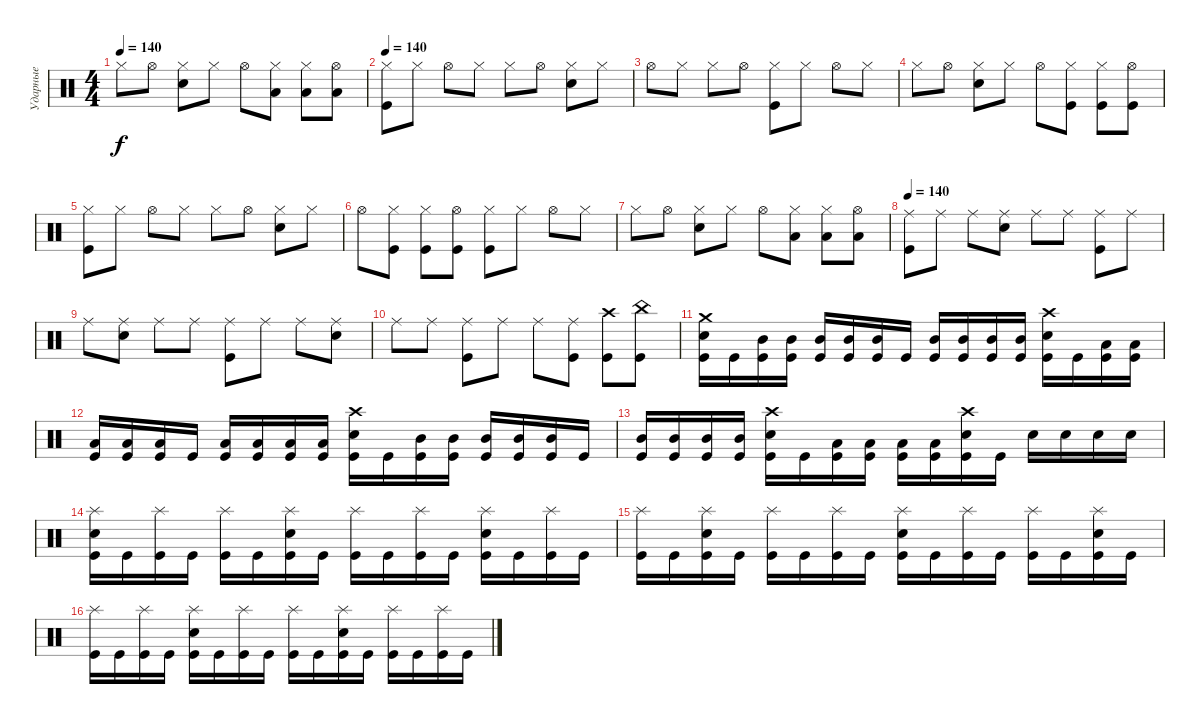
\track ("Ударные" "Ударные") {instrument percussion}
\staff {score}
\articulation defaults
\ts (4 4)
\tempo 140
\clef neutral
\ks c "Hi-Hat (closed)".8{dy f} "Hi-Hat (open)".8
("Snare (hit) 2" "Hi-Hat (closed)").8 "Hi-Hat (closed)".8 "Hi-Hat (open)".8 ("Low Tom (hit)" "Hi-Hat (closed)").8 ("Low Tom (hit)" "Hi-Hat (closed)").8 ("Low Tom (hit)" "Hi-Hat (open)").8 |
\tempo 140
("Kick (hit)" "Hi-Hat (closed)").8 "Hi-Hat (closed)".8 "Hi-Hat (open)".8 "Hi-Hat (closed)".8 "Hi-Hat (closed)".8 "Hi-Hat (open)".8 ("Snare (hit) 2" "Hi-Hat (closed)").8 "Hi-Hat (closed)".8 |
"Hi-Hat (open)".8 "Hi-Hat (closed)".8 "Hi-Hat (closed)".8 "Hi-Hat (open)".8 ("Kick (hit)" "Hi-Hat (closed)").8 "Hi-Hat (closed)".8 "Hi-Hat (open)".8 "Hi-Hat (closed)".8 |
"Hi-Hat (closed)".8 "Hi-Hat (open)".8 ("Snare (hit) 2" "Hi-Hat (closed)").8 "Hi-Hat (closed)".8 "Hi-Hat (open)".8 ("Kick (hit)" "Hi-Hat (closed)").8 ("Kick (hit)" "Hi-Hat (closed)").8 ("Kick (hit)" "Hi-Hat (open)").8 |
("Kick (hit)" "Hi-Hat (closed)").8 "Hi-Hat (closed)".8 "Hi-Hat (open)".8 "Hi-Hat (closed)".8 "Hi-Hat (closed)".8 "Hi-Hat (open)".8 ("Snare (hit) 2" "Hi-Hat (closed)").8 "Hi-Hat (closed)".8 |
"Hi-Hat (open)".8 ("Kick (hit)" "Hi-Hat (closed)").8 ("Kick (hit)" "Hi-Hat (closed)").8 ("Kick (hit)" "Hi-Hat (open)").8 ("Kick (hit)" "Hi-Hat (closed)").8 "Hi-Hat (closed)".8 "Hi-Hat (open)".8 "Hi-Hat (closed)".8 |
"Hi-Hat (closed)".8 "Hi-Hat (open)".8 ("Snare (hit) 2" "Hi-Hat (closed)").8 "Hi-Hat (closed)".8 "Hi-Hat (open)".8 ("Low Tom (hit)" "Hi-Hat (closed)").8 ("Low Tom (hit)" "Hi-Hat (closed)").8 ("Low Tom (hit)" "Hi-Hat (open)").8 |
\tempo 140
("Kick (hit)" "Ride (middle)").8 "Ride (middle)".8 "Ride (middle)".8 ("Snare (hit) 2" "Ride (middle)").8 "Ride (middle)".8 "Ride (middle)".8 ("Kick (hit)" "Ride (middle)").8 "Ride (middle)".8 |
"Ride (middle)".8 ("Snare (hit) 2" "Ride (middle)").8 "Ride (middle)".8 "Ride (middle)".8 ("Kick (hit)" "Ride (middle)").8 "Ride (middle)".8 "Ride (middle)".8 ("Snare (hit) 2" "Ride (middle)").8 |
"Ride (middle)".8 "Ride (middle)".8 ("Kick (hit)" "Ride (middle)").8 "Ride (middle)".8 "Ride (middle)".8 ("Kick (hit)" "Ride (middle)").8 ("Kick (hit)" "Crash high (hit)").8 ("Kick (hit)" "China (hit)").8 |
("Kick (hit)" "Snare (hit) 2" "Crash medium (hit)").16 "Kick (hit)".16 ("Kick (hit)" "Mid Tom (hit)").16 ("Kick (hit)" "Mid Tom (hit)").16 ("Kick (hit)" "Mid Tom (hit)").16 ("Kick (hit)" "Mid Tom (hit)").16 ("Kick (hit)" "Mid Tom (hit)").16 "Kick (hit)".16 ("Kick (hit)" "Mid Tom (hit)").16 ("Kick (hit)" "Mid Tom (hit)").16 ("Kick (hit)" "Mid Tom (hit)").16 ("Kick (hit)" "Mid Tom (hit)").16 ("Kick (hit)" "Snare (hit) 2" "Crash high (hit)").16 "Kick (hit)".16 ("Kick (hit)" "Low Tom (hit)").16 ("Kick (hit)" "Low Tom (hit)").16 |
("Kick (hit)" "Low Tom (hit)").16 ("Kick (hit)" "Low Tom (hit)").16 ("Kick (hit)" "Low Tom (hit)").16 "Kick (hit)".16 ("Kick (hit)" "Low Tom (hit)").16 ("Kick (hit)" "Low Tom (hit)").16 ("Kick (hit)" "Low Tom (hit)").16 ("Kick (hit)" "Low Tom (hit)").16 ("Kick (hit)" "Snare (hit) 2" "Crash high (hit)").16 "Kick (hit)".16 ("Kick (hit)" "Mid Tom (hit)").16 ("Kick (hit)" "Mid Tom (hit)").16 ("Kick (hit)" "Mid Tom (hit)").16 ("Kick (hit)" "Mid Tom (hit)").16 ("Kick (hit)" "Mid Tom (hit)").16 "Kick (hit)".16 |
("Kick (hit)" "Mid Tom (hit)").16 ("Kick (hit)" "Mid Tom (hit)").16 ("Kick (hit)" "Mid Tom (hit)").16 ("Kick (hit)" "Mid Tom (hit)").16 ("Kick (hit)" "Snare (hit) 2" "Crash high (hit)").16 "Kick (hit)".16 ("Kick (hit)" "Low Tom (hit)").16 ("Kick (hit)" "Low Tom (hit)").16 ("Kick (hit)" "Low Tom (hit)").16 ("Kick (hit)" "Low Tom (hit)").16 ("Kick (hit)" "Snare (hit) 2" "Crash high (hit)").16 "Kick (hit)".16 "Snare (hit) 2".16 "Snare (hit) 2".16 "Snare (hit) 2".16 "Snare (hit) 2".16 |
("Kick (hit)" "Snare (hit) 2" "Splash (hit)").16 "Kick (hit)".16 ("Kick (hit)" "Splash (hit)").16 "Kick (hit)".16 ("Kick (hit)" "Splash (hit)").16 "Kick (hit)".16 ("Kick (hit)" "Snare (hit) 2" "Splash (hit)").16 "Kick (hit)".16 ("Kick (hit)" "Splash (hit)").16 "Kick (hit)".16 ("Kick (hit)" "Splash (hit)").16 "Kick (hit)".16 ("Kick (hit)" "Snare (hit) 2" "Splash (hit)").16 "Kick (hit)".16 ("Kick (hit)" "Splash (hit)").16 "Kick (hit)".16 |
("Kick (hit)" "Splash (hit)").16 "Kick (hit)".16 ("Kick (hit)" "Snare (hit) 2" "Splash (hit)").16 "Kick (hit)".16 ("Kick (hit)" "Splash (hit)").16 "Kick (hit)".16 ("Kick (hit)" "Splash (hit)").16 "Kick (hit)".16 ("Kick (hit)" "Snare (hit) 2" "Splash (hit)").16 "Kick (hit)".16 ("Kick (hit)" "Splash (hit)").16 "Kick (hit)".16 ("Kick (hit)" "Splash (hit)").16 "Kick (hit)".16 ("Kick (hit)" "Snare (hit) 2" "Splash (hit)").16 "Kick (hit)".16 |
("Kick (hit)" "Splash (hit)").16 "Kick (hit)".16 ("Kick (hit)" "Splash (hit)").16 "Kick (hit)".16 ("Kick (hit)" "Snare (hit) 2" "Splash (hit)").16 "Kick (hit)".16 ("Kick (hit)" "Splash (hit)").16 "Kick (hit)".16 ("Kick (hit)" "Splash (hit)").16 "Kick (hit)".16 ("Kick (hit)" "Snare (hit) 2" "Splash (hit)").16 "Kick (hit)".16 ("Kick (hit)" "Splash (hit)").16 "Kick (hit)".16 ("Kick (hit)" "Splash (hit)").16 "Kick (hit)".16
